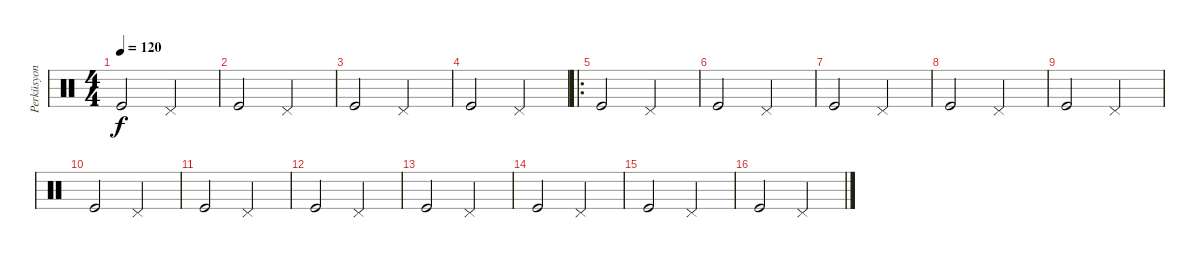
\track ("Perküsyon" "Perküsyon") {instrument percussion}
\staff {score}
\articulation defaults
\ts (4 4)
\tempo 120
\clef neutral
\ks c "Kick (hit)".2{dy f} "Pedal Hi-Hat (hit)".2
|
"Kick (hit)".2 "Pedal Hi-Hat (hit)".2 |
"Kick (hit)".2 "Pedal Hi-Hat (hit)".2 |
"Kick (hit)".2 "Pedal Hi-Hat (hit)".2 |
\ro "Kick (hit)".2 "Pedal Hi-Hat (hit)".2
|
"Kick (hit)".2 "Pedal Hi-Hat (hit)".2 |
"Kick (hit)".2 "Pedal Hi-Hat (hit)".2 |
"Kick (hit)".2 "Pedal Hi-Hat (hit)".2 |
"Kick (hit)".2 "Pedal Hi-Hat (hit)".2 |
"Kick (hit)".2 "Pedal Hi-Hat (hit)".2 |
"Kick (hit)".2 "Pedal Hi-Hat (hit)".2 |
"Kick (hit)".2 "Pedal Hi-Hat (hit)".2 |
"Kick (hit)".2 "Pedal Hi-Hat (hit)".2 |
"Kick (hit)".2 "Pedal Hi-Hat (hit)".2 |
"Kick (hit)".2 "Pedal Hi-Hat (hit)".2 |
"Kick (hit)".2 "Pedal Hi-Hat (hit)".2
